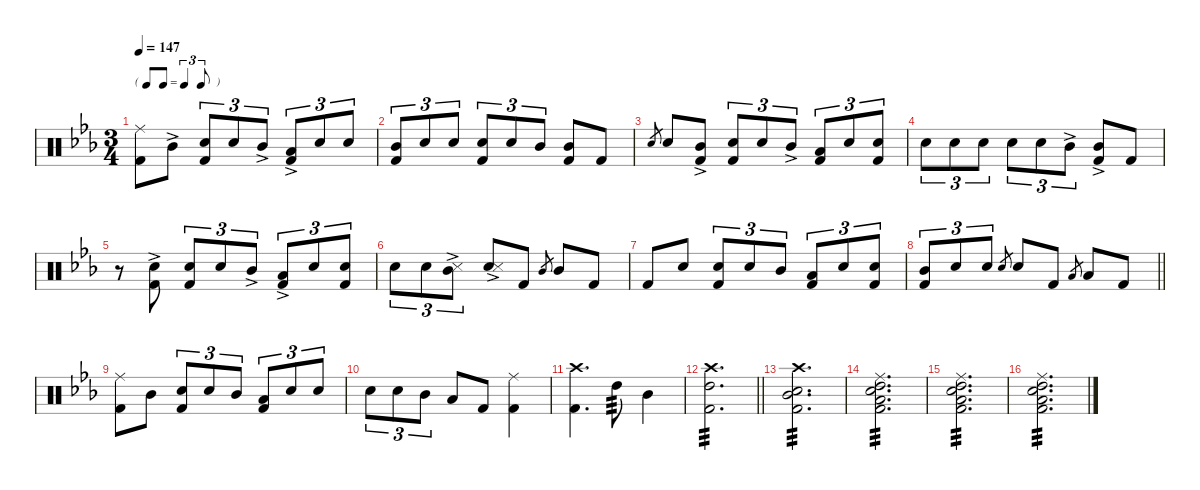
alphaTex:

\defaultSystemsLayout 4
\hideDynamics
\bracketExtendMode nobrackets
\singleTrackTrackNamePolicy hidden
\multiTrackTrackNamePolicy hidden
\firstSystemTrackNameMode fullname
\firstSystemTrackNameOrientation horizontal
\otherSystemsTrackNameOrientation horizontal
\track ("Percussion" "drm.") {defaultSystemsLayout 8 instrument percussion}
\staff {score}
\articulation defaults
\ts (3 4)
\tf triplet8th
\tempo 147
\clef neutral
\ks eb
("Ride (middle)"{acc forcenatural} "Kick (hit) 2"{acc forcenatural}).8{dy f beam Down} "Mid Tom (hit)"{ac acc forcenatural}.8{beam Down} ("Snare (hit) 2"{acc forcenatural} "Kick (hit) 2"{acc forcenatural}).8{tu (3 2) beam Up} "Snare (hit) 2"{acc forcenatural}.8{tu (3 2) beam Up} "Mid Tom (hit)"{ac acc forcenatural}.8{tu (3 2) beam Up} ("Low Tom (hit)"{ac acc forcenatural} "Kick (hit) 2"{acc forcenatural}).8{tu (3 2) beam Up} "Snare (hit) 2"{acc forcenatural}.8{tu (3 2) beam Up} "Snare (hit) 2"{acc forcenatural}.8{tu (3 2) beam Up} |
("Mid Tom (hit)"{acc forcenatural} "Kick (hit) 2"{acc forcenatural}).8{tu (3 2) beam Up} "Snare (hit) 2"{acc forcenatural}.8{tu (3 2) beam Up} "Snare (hit) 2"{acc forcenatural}.8{tu (3 2) beam Up} ("Snare (hit) 2"{acc forcenatural} "Kick (hit) 2"{acc forcenatural}).8{tu (3 2) beam Up} "Snare (hit) 2"{acc forcenatural}.8{tu (3 2) beam Up} "Mid Tom (hit)"{acc forcenatural}.8{tu (3 2) beam Up} ("Mid Tom (hit)"{acc forcenatural} "Kick (hit) 2"{acc forcenatural}).8{beam Up} "Kick (hit) 2"{acc forcenatural}.8{beam Up} |
"Snare (hit) 2"{acc forcenatural}.8{gr dy mf beam Up} "Snare (hit) 2"{acc forcenatural}.8{dy f beam Up} ("Mid Tom (hit)"{ac acc forcenatural} "Kick (hit) 2"{acc forcenatural}).8{beam Up} ("Snare (hit) 2"{acc forcenatural} "Kick (hit) 2"{acc forcenatural}).8{tu (3 2) beam Up} "Snare (hit) 2"{acc forcenatural}.8{tu (3 2) beam Up} "Mid Tom (hit)"{ac acc forcenatural}.8{tu (3 2) beam Up} ("Low Tom (hit)"{acc forcenatural} "Kick (hit) 2"{acc forcenatural}).8{tu (3 2) beam Up} "Snare (hit) 2"{acc forcenatural}.8{tu (3 2) beam Up} ("Snare (hit) 2"{acc forcenatural} "Kick (hit) 2"{acc forcenatural}).8{tu (3 2) beam Up} |
"Snare (hit) 2"{acc forcenatural}.8{tu (3 2) beam Down} "Snare (hit) 2"{acc forcenatural}.8{tu (3 2) beam Down} "Snare (hit) 2"{acc forcenatural}.8{tu (3 2) beam Down} "Snare (hit) 2"{acc forcenatural}.8{tu (3 2) beam Down} "Snare (hit) 2"{acc forcenatural}.8{tu (3 2) beam Down} "Mid Tom (hit)"{ac acc forcenatural}.8{tu (3 2) beam Down} ("Mid Tom (hit)"{ac acc forcenatural} "Kick (hit) 2"{ac acc forcenatural}).8{beam Up} "Kick (hit) 2"{acc forcenatural}.8{beam Up} |
r.8{beam Down} ("Snare (hit) 2"{ac acc forcenatural} "Kick (hit) 2"{ac acc forcenatural}).8{beam Up} ("Snare (hit) 2"{acc forcenatural} "Kick (hit) 2"{acc forcenatural}).8{tu (3 2) beam Up} "Snare (hit) 2"{acc forcenatural}.8{tu (3 2) beam Up} "Mid Tom (hit)"{ac acc forcenatural}.8{tu (3 2) beam Up} ("Low Tom (hit)"{ac acc forcenatural} "Kick (hit) 2"{acc forcenatural}).8{tu (3 2) beam Up} "Snare (hit) 2"{acc forcenatural}.8{tu (3 2) beam Up} ("Snare (hit) 2"{acc forcenatural} "Kick (hit) 2"{acc forcenatural}).8{tu (3 2) beam Up} |
"Snare (hit) 2"{acc forcenatural}.8{tu (3 2) beam Down} "Snare (hit) 2"{acc forcenatural}.8{tu (3 2) beam Down} ("Mid Tom (hit)"{ac acc forcenatural} "Snare (side stick) 3"{acc forcenatural}).8{tu (3 2) beam Down} ("Snare (hit) 2"{ac acc forcenatural} "Snare (side stick) 3"{acc forcenatural}).8{beam Up} "Kick (hit) 2"{acc forcenatural}.8{beam Up} "Mid Tom (hit)"{acc forcenatural}.8{gr dy mf beam Up} "Mid Tom (hit)"{acc forcenatural}.8{dy f beam Up} "Kick (hit) 2"{acc forcenatural}.8{beam Up} |
"Kick (hit) 2"{acc forcenatural}.8{beam Up} "Snare (hit) 2"{acc forcenatural}.8{beam Up} ("Snare (hit) 2"{acc forcenatural} "Kick (hit) 2"{acc forcenatural}).8{tu (3 2) beam Up} "Snare (hit) 2"{acc forcenatural}.8{tu (3 2) beam Up} "Mid Tom (hit)"{acc forcenatural}.8{tu (3 2) beam Up} ("Low Floor Tom (hit)"{acc forcenatural} "Kick (hit) 2"{acc forcenatural}).8{tu (3 2) beam Up} "Snare (hit) 2"{acc forcenatural}.8{tu (3 2) beam Up} ("Snare (hit) 2"{acc forcenatural} "Kick (hit) 2"{acc forcenatural}).8{tu (3 2) beam Up} |
\barLineRight lightlight
("Mid Tom (hit)"{acc forcenatural} "Kick (hit) 2"{acc forcenatural}).8{tu (3 2) beam Up} "Snare (hit) 2"{acc forcenatural}.8{tu (3 2) beam Up} "Snare (hit) 2"{acc forcenatural}.8{tu (3 2) beam Up} "Snare (hit) 2"{acc forcenatural}.8{gr dy mf beam Up} "Snare (hit) 2"{acc forcenatural}.8{dy f beam Up} "Kick (hit) 2"{acc forcenatural}.8{beam Up} "Low Floor Tom (hit)"{acc forcenatural}.8{gr dy mf beam Up} "Low Floor Tom (hit)"{acc forcenatural}.8{dy f beam Up} "Kick (hit) 2"{acc forcenatural}.8{beam Up} |
("Ride (middle)"{acc forcenatural} "Kick (hit) 2"{acc forcenatural}).8{beam Down} "Mid Tom (hit)"{acc forcenatural}.8{beam Down} ("Snare (hit) 2"{acc forcenatural} "Kick (hit) 2"{acc forcenatural}).8{tu (3 2) beam Up} "Snare (hit) 2"{acc forcenatural}.8{tu (3 2) beam Up} "Mid Tom (hit)"{acc forcenatural}.8{tu (3 2) beam Up} ("Low Floor Tom (hit)"{acc forcenatural} "Kick (hit) 2"{acc forcenatural}).8{tu (3 2) beam Up} "Snare (hit) 2"{acc forcenatural}.8{tu (3 2) beam Up} "Snare (hit) 2"{acc forcenatural}.8{tu (3 2) beam Up} |
"Snare (hit) 2"{acc forcenatural}.8{tu (3 2) beam Down} "Snare (hit) 2"{acc forcenatural}.8{tu (3 2) beam Down} "Mid Tom (hit)"{acc forcenatural}.8{tu (3 2) beam Down} "Low Floor Tom (hit)"{acc forcenatural}.8{beam Up} "Kick (hit) 2"{acc forcenatural}.8{beam Up} ("Ride (middle)"{acc forcenatural} "Kick (hit) 2"{acc forcenatural}).4{beam Down} |
("Crash high (hit)"{acc forcenatural} "Kick (hit) 2"{acc forcenatural}).4{d beam Down} "High Tom (hit)"{acc forcenatural}.8{tp 3 dy mp beam Down} "Mid Tom (hit)"{acc forcenatural}.4{dy f beam Down} |
\barLineRight lightlight
("Crash high (hit)"{acc forcenatural} "High Tom (hit)"{acc forcenatural} "Kick (hit) 2"{acc forcenatural}).2{d tp 3 dy mp beam Down} |
("Snare (hit) 2"{acc forcenatural} "Crash high (hit)"{acc forcenatural} "Mid Tom (hit)"{acc forcenatural} "Kick (hit) 2"{acc forcenatural}).2{d tp 3 dy p beam Down} |
("Snare (hit) 2"{acc forcenatural} "Ride (middle)"{acc forcenatural} "High Tom (hit)"{acc forcenatural} "Kick (hit) 2"{acc forcenatural} "Low Floor Tom (hit)"{acc forcenatural}).2{d tp 3 beam Down} |
("Snare (hit) 2"{acc forcenatural} "Ride (middle)"{acc forcenatural} "High Tom (hit)"{acc forcenatural} "Kick (hit) 2"{acc forcenatural} "Low Floor Tom (hit)"{acc forcenatural}).2{d tp 3 beam Down} |
("Snare (hit) 2"{acc forcenatural} "Ride (middle)"{acc forcenatural} "High Tom (hit)"{acc forcenatural} "Kick (hit) 2"{acc forcenatural} "Low Floor Tom (hit)"{acc forcenatural}).2{d tp 3 beam Down}
